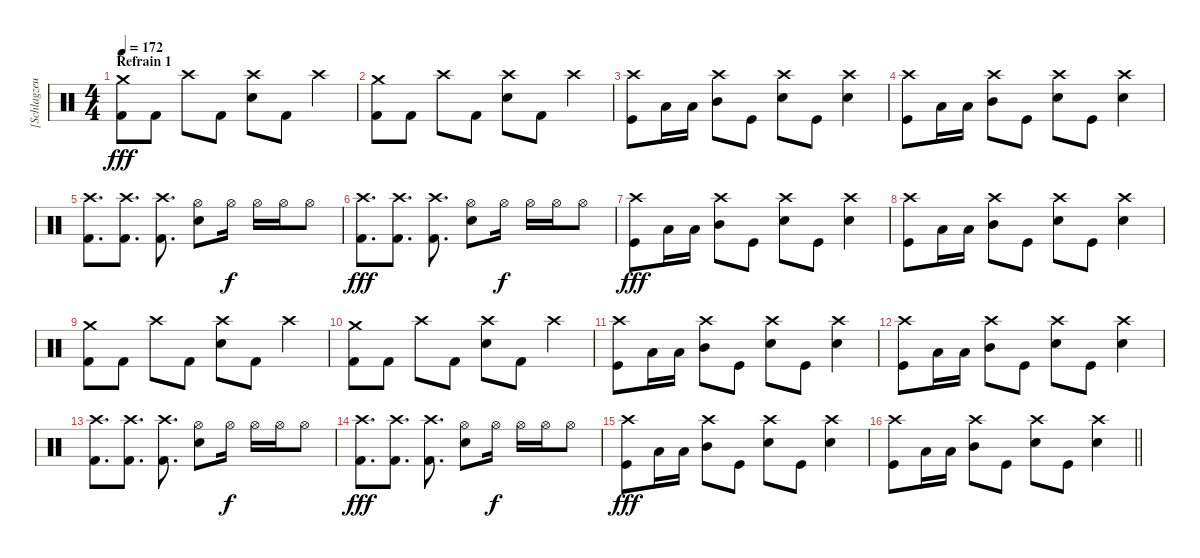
\track ("[Schlagzeug]" "[Schlagzeu") {instrument percussion}
\staff {score}
\articulation defaults
\ts (4 4)
\section ("" "Refrain 1")
\tempo 172
\clef neutral
\ks c
("Crash medium (hit)" "Kick (hit) 2").8{dy fff} "Kick (hit) 2".8 "Crash high (hit)".8 "Kick (hit) 2".8 ("Crash high (hit)" "Electric Snare (hit)").8 "Kick (hit) 2".8 "Crash high (hit)".4 |
("Crash medium (hit)" "Kick (hit) 2").8 "Kick (hit) 2".8 "Crash high (hit)".8 "Kick (hit) 2".8 ("Crash high (hit)" "Electric Snare (hit)").8 "Kick (hit) 2".8 "Crash high (hit)".4 |
("Kick (hit)" "Crash high (hit)").8 "Low Floor Tom (hit)".16 "Low Floor Tom (hit)".16 ("Mid Tom (hit)" "Crash high (hit)").8 "Kick (hit)".8 ("Electric Snare (hit)" "Crash high (hit)").8 "Kick (hit)".8 ("Electric Snare (hit)" "Crash high (hit)").4 |
("Kick (hit)" "Crash high (hit)").8 "Low Floor Tom (hit)".16 "Low Floor Tom (hit)".16 ("Mid Tom (hit)" "Crash high (hit)").8 "Kick (hit)".8 ("Electric Snare (hit)" "Crash high (hit)").8 "Kick (hit)".8 ("Electric Snare (hit)" "Crash high (hit)").4 |
("Crash high (hit)" "Kick (hit) 2").8{d} ("Crash high (hit)" "Kick (hit) 2").8{d} ("Crash high (hit)" "Kick (hit) 2").8{d} ("Hi-Hat (open)" "Electric Snare (hit)").8 "Hi-Hat (open)".16{dy f} "Hi-Hat (open)".16 "Hi-Hat (open)".16 "Hi-Hat (open)".8 |
("Crash high (hit)" "Kick (hit) 2").8{d dy fff} ("Crash high (hit)" "Kick (hit) 2").8{d} ("Crash high (hit)" "Kick (hit) 2").8{d} ("Hi-Hat (open)" "Electric Snare (hit)").8 "Hi-Hat (open)".16{dy f} "Hi-Hat (open)".16 "Hi-Hat (open)".16 "Hi-Hat (open)".8 |
("Kick (hit)" "Crash high (hit)").8{dy fff} "Low Floor Tom (hit)".16 "Low Floor Tom (hit)".16 ("Mid Tom (hit)" "Crash high (hit)").8 "Kick (hit)".8 ("Electric Snare (hit)" "Crash high (hit)").8 "Kick (hit)".8 ("Electric Snare (hit)" "Crash high (hit)").4 |
("Kick (hit)" "Crash high (hit)").8 "Low Floor Tom (hit)".16 "Low Floor Tom (hit)".16 ("Mid Tom (hit)" "Crash high (hit)").8 "Kick (hit)".8 ("Electric Snare (hit)" "Crash high (hit)").8 "Kick (hit)".8 ("Electric Snare (hit)" "Crash high (hit)").4 |
("Crash medium (hit)" "Kick (hit) 2").8 "Kick (hit) 2".8 "Crash high (hit)".8 "Kick (hit) 2".8 ("Crash high (hit)" "Electric Snare (hit)").8 "Kick (hit) 2".8 "Crash high (hit)".4 |
("Crash medium (hit)" "Kick (hit) 2").8 "Kick (hit) 2".8 "Crash high (hit)".8 "Kick (hit) 2".8 ("Crash high (hit)" "Electric Snare (hit)").8 "Kick (hit) 2".8 "Crash high (hit)".4 |
("Kick (hit)" "Crash high (hit)").8 "Low Floor Tom (hit)".16 "Low Floor Tom (hit)".16 ("Mid Tom (hit)" "Crash high (hit)").8 "Kick (hit)".8 ("Electric Snare (hit)" "Crash high (hit)").8 "Kick (hit)".8 ("Electric Snare (hit)" "Crash high (hit)").4 |
("Kick (hit)" "Crash high (hit)").8 "Low Floor Tom (hit)".16 "Low Floor Tom (hit)".16 ("Mid Tom (hit)" "Crash high (hit)").8 "Kick (hit)".8 ("Electric Snare (hit)" "Crash high (hit)").8 "Kick (hit)".8 ("Electric Snare (hit)" "Crash high (hit)").4 |
("Crash high (hit)" "Kick (hit) 2").8{d} ("Crash high (hit)" "Kick (hit) 2").8{d} ("Crash high (hit)" "Kick (hit) 2").8{d} ("Hi-Hat (open)" "Electric Snare (hit)").8 "Hi-Hat (open)".16{dy f} "Hi-Hat (open)".16 "Hi-Hat (open)".16 "Hi-Hat (open)".8 |
("Crash high (hit)" "Kick (hit) 2").8{d dy fff} ("Crash high (hit)" "Kick (hit) 2").8{d} ("Crash high (hit)" "Kick (hit) 2").8{d} ("Hi-Hat (open)" "Electric Snare (hit)").8 "Hi-Hat (open)".16{dy f} "Hi-Hat (open)".16 "Hi-Hat (open)".16 "Hi-Hat (open)".8 |
("Kick (hit)" "Crash high (hit)").8{dy fff} "Low Floor Tom (hit)".16 "Low Floor Tom (hit)".16 ("Mid Tom (hit)" "Crash high (hit)").8 "Kick (hit)".8 ("Electric Snare (hit)" "Crash high (hit)").8 "Kick (hit)".8 ("Electric Snare (hit)" "Crash high (hit)").4 |
\barLineRight lightlight
("Kick (hit)" "Crash high (hit)").8 "Low Floor Tom (hit)".16 "Low Floor Tom (hit)".16 ("Mid Tom (hit)" "Crash high (hit)").8 "Kick (hit)".8 ("Electric Snare (hit)" "Crash high (hit)").8 "Kick (hit)".8 ("Electric Snare (hit)" "Crash high (hit)").4
